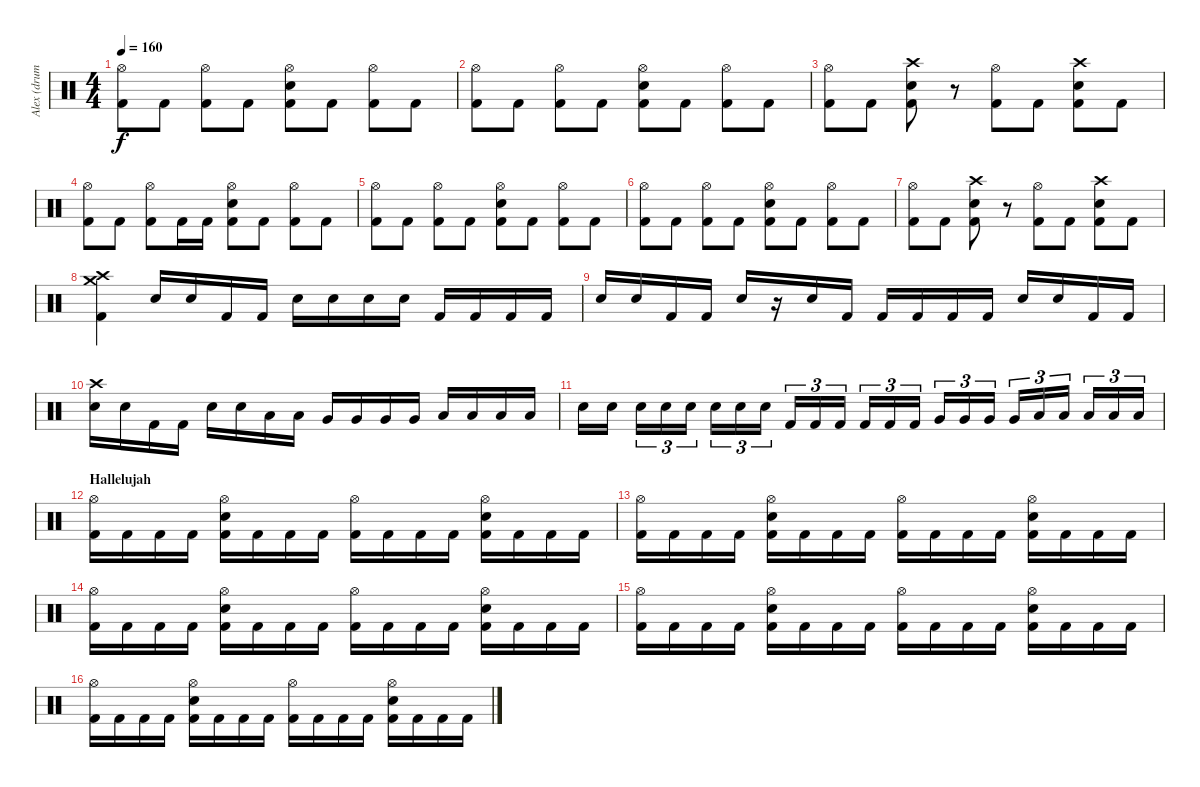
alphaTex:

\track ("Alex (drums)" "Alex (drum") {instrument percussion}
\staff {score}
\articulation defaults
\ts (4 4)
\tempo 160
\clef neutral
\ks c
("Hi-Hat (open)" "Kick (hit) 2").8{dy f} "Kick (hit) 2".8 ("Hi-Hat (open)" "Kick (hit) 2").8 "Kick (hit) 2".8 ("Hi-Hat (open)" "Snare (hit) 2" "Kick (hit) 2").8 "Kick (hit) 2".8 ("Hi-Hat (open)" "Kick (hit) 2").8 "Kick (hit) 2".8 |
("Hi-Hat (open)" "Kick (hit) 2").8 "Kick (hit) 2".8 ("Hi-Hat (open)" "Kick (hit) 2").8 "Kick (hit) 2".8 ("Hi-Hat (open)" "Snare (hit) 2" "Kick (hit) 2").8 "Kick (hit) 2".8 ("Hi-Hat (open)" "Kick (hit) 2").8 "Kick (hit) 2".8 |
("Hi-Hat (open)" "Kick (hit) 2").8 "Kick (hit) 2".8 ("Snare (hit) 2" "Kick (hit) 2" "Crash high (hit)").8 r.8 ("Hi-Hat (open)" "Kick (hit) 2").8 "Kick (hit) 2".8 ("Snare (hit) 2" "Kick (hit) 2" "Crash high (hit)").8 "Kick (hit) 2".8 |
("Hi-Hat (open)" "Kick (hit) 2").8 "Kick (hit) 2".8 ("Hi-Hat (open)" "Kick (hit) 2").8 "Kick (hit) 2".16 "Kick (hit) 2".16 ("Hi-Hat (open)" "Snare (hit) 2" "Kick (hit) 2").8 "Kick (hit) 2".8 ("Hi-Hat (open)" "Kick (hit) 2").8 "Kick (hit) 2".8 |
("Hi-Hat (open)" "Kick (hit) 2").8 "Kick (hit) 2".8 ("Hi-Hat (open)" "Kick (hit) 2").8 "Kick (hit) 2".8 ("Hi-Hat (open)" "Snare (hit) 2" "Kick (hit) 2").8 "Kick (hit) 2".8 ("Hi-Hat (open)" "Kick (hit) 2").8 "Kick (hit) 2".8 |
("Hi-Hat (open)" "Kick (hit) 2").8 "Kick (hit) 2".8 ("Hi-Hat (open)" "Kick (hit) 2").8 "Kick (hit) 2".8 ("Hi-Hat (open)" "Snare (hit) 2" "Kick (hit) 2").8 "Kick (hit) 2".8 ("Hi-Hat (open)" "Kick (hit) 2").8 "Kick (hit) 2".8 |
("Hi-Hat (open)" "Kick (hit) 2").8 "Kick (hit) 2".8 ("Snare (hit) 2" "Kick (hit) 2" "Crash high (hit)").8 r.8 ("Hi-Hat (open)" "Kick (hit) 2").8 "Kick (hit) 2".8 ("Snare (hit) 2" "Kick (hit) 2" "Crash high (hit)").8 "Kick (hit) 2".8 |
("Kick (hit) 2" "Crash medium (hit)" "Crash high (hit)").4 "Snare (hit) 2".16 "Snare (hit) 2".16 "Kick (hit) 2".16 "Kick (hit) 2".16 "Snare (hit) 2".16 "Snare (hit) 2".16 "Snare (hit) 2".16 "Snare (hit) 2".16 "Kick (hit) 2".16 "Kick (hit) 2".16 "Kick (hit) 2".16 "Kick (hit) 2".16 |
"Snare (hit) 2".16 "Snare (hit) 2".16 "Kick (hit) 2".16 "Kick (hit) 2".16 "Snare (hit) 2".16 r.16 "Snare (hit) 2".16 "Kick (hit) 2".16 "Kick (hit) 2".16 "Kick (hit) 2".16 "Kick (hit) 2".16 "Kick (hit) 2".16 "Snare (hit) 2".16 "Snare (hit) 2".16 "Kick (hit) 2".16 "Kick (hit) 2".16 |
("Snare (hit) 2" "Crash high (hit)").16 "Snare (hit) 2".16 "Kick (hit) 2".16 "Kick (hit) 2".16 "Snare (hit) 2".16 "Snare (hit) 2".16 "Low Tom (hit)".16 "Low Tom (hit)".16 "Very Low Tom (hit)".16 "Very Low Tom (hit)".16 "Very Low Tom (hit)".16 "Very Low Tom (hit)".16 "Low Floor Tom (hit)".16 "Low Floor Tom (hit)".16 "Low Floor Tom (hit)".16 "Low Floor Tom (hit)".16 |
"Snare (hit) 2".16 "Snare (hit) 2".16 "Snare (hit) 2".16{tu (3 2)} "Snare (hit) 2".16{tu (3 2)} "Snare (hit) 2".16{tu (3 2)} "Snare (hit) 2".16{tu (3 2)} "Snare (hit) 2".16{tu (3 2)} "Snare (hit) 2".16{tu (3 2)} "Kick (hit) 2".16{tu (3 2)} "Kick (hit) 2".16{tu (3 2)} "Kick (hit) 2".16{tu (3 2)} "Kick (hit) 2".16{tu (3 2)} "Kick (hit) 2".16{tu (3 2)} "Kick (hit) 2".16{tu (3 2)} "Very Low Tom (hit)".16{tu (3 2)} "Very Low Tom (hit)".16{tu (3 2)} "Very Low Tom (hit)".16{tu (3 2)} "Very Low Tom (hit)".16{tu (3 2)} "Low Floor Tom (hit)".16{tu (3 2)} "Low Floor Tom (hit)".16{tu (3 2)} "Low Floor Tom (hit)".16{tu (3 2)} "Low Floor Tom (hit)".16{tu (3 2)} "Low Floor Tom (hit)".16{tu (3 2)} |
\section ("" "Hallelujah")
("Hi-Hat (open)" "Kick (hit) 2").16 "Kick (hit) 2".16 "Kick (hit) 2".16 "Kick (hit) 2".16 ("Hi-Hat (open)" "Snare (hit) 2" "Kick (hit) 2").16 "Kick (hit) 2".16 "Kick (hit) 2".16 "Kick (hit) 2".16 ("Hi-Hat (open)" "Kick (hit) 2").16 "Kick (hit) 2".16 "Kick (hit) 2".16 "Kick (hit) 2".16 ("Hi-Hat (open)" "Snare (hit) 2" "Kick (hit) 2").16 "Kick (hit) 2".16 "Kick (hit) 2".16 "Kick (hit) 2".16 |
("Hi-Hat (open)" "Kick (hit) 2").16 "Kick (hit) 2".16 "Kick (hit) 2".16 "Kick (hit) 2".16 ("Hi-Hat (open)" "Snare (hit) 2" "Kick (hit) 2").16 "Kick (hit) 2".16 "Kick (hit) 2".16 "Kick (hit) 2".16 ("Hi-Hat (open)" "Kick (hit) 2").16 "Kick (hit) 2".16 "Kick (hit) 2".16 "Kick (hit) 2".16 ("Hi-Hat (open)" "Snare (hit) 2" "Kick (hit) 2").16 "Kick (hit) 2".16 "Kick (hit) 2".16 "Kick (hit) 2".16 |
("Hi-Hat (open)" "Kick (hit) 2").16 "Kick (hit) 2".16 "Kick (hit) 2".16 "Kick (hit) 2".16 ("Hi-Hat (open)" "Snare (hit) 2" "Kick (hit) 2").16 "Kick (hit) 2".16 "Kick (hit) 2".16 "Kick (hit) 2".16 ("Hi-Hat (open)" "Kick (hit) 2").16 "Kick (hit) 2".16 "Kick (hit) 2".16 "Kick (hit) 2".16 ("Hi-Hat (open)" "Snare (hit) 2" "Kick (hit) 2").16 "Kick (hit) 2".16 "Kick (hit) 2".16 "Kick (hit) 2".16 |
("Hi-Hat (open)" "Kick (hit) 2").16 "Kick (hit) 2".16 "Kick (hit) 2".16 "Kick (hit) 2".16 ("Hi-Hat (open)" "Snare (hit) 2" "Kick (hit) 2").16 "Kick (hit) 2".16 "Kick (hit) 2".16 "Kick (hit) 2".16 ("Hi-Hat (open)" "Kick (hit) 2").16 "Kick (hit) 2".16 "Kick (hit) 2".16 "Kick (hit) 2".16 ("Hi-Hat (open)" "Snare (hit) 2" "Kick (hit) 2").16 "Kick (hit) 2".16 "Kick (hit) 2".16 "Kick (hit) 2".16 |
("Hi-Hat (open)" "Kick (hit) 2").16 "Kick (hit) 2".16 "Kick (hit) 2".16 "Kick (hit) 2".16 ("Hi-Hat (open)" "Snare (hit) 2" "Kick (hit) 2").16 "Kick (hit) 2".16 "Kick (hit) 2".16 "Kick (hit) 2".16 ("Hi-Hat (open)" "Kick (hit) 2").16 "Kick (hit) 2".16 "Kick (hit) 2".16 "Kick (hit) 2".16 ("Hi-Hat (open)" "Snare (hit) 2" "Kick (hit) 2").16 "Kick (hit) 2".16 "Kick (hit) 2".16 "Kick (hit) 2".16
